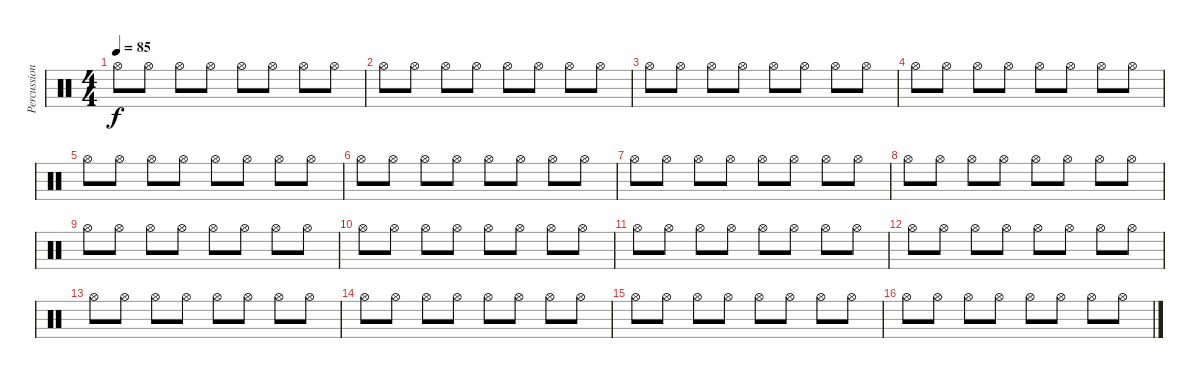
\track ("Percussion" "Percussion") {instrument percussion}
\staff {score}
\articulation defaults
\ts (4 4)
\tempo 85
\clef neutral
\ks c "Hi-Hat (open)".8{dy f volume 3 balance 12} "Hi-Hat (open)".8 "Hi-Hat (open)".8 "Hi-Hat (open)".8 "Hi-Hat (open)".8 "Hi-Hat (open)".8 "Hi-Hat (open)".8 "Hi-Hat (open)".8
|
"Hi-Hat (open)".8 "Hi-Hat (open)".8 "Hi-Hat (open)".8 "Hi-Hat (open)".8 "Hi-Hat (open)".8 "Hi-Hat (open)".8 "Hi-Hat (open)".8 "Hi-Hat (open)".8 |
"Hi-Hat (open)".8 "Hi-Hat (open)".8 "Hi-Hat (open)".8 "Hi-Hat (open)".8 "Hi-Hat (open)".8 "Hi-Hat (open)".8 "Hi-Hat (open)".8 "Hi-Hat (open)".8 |
"Hi-Hat (open)".8 "Hi-Hat (open)".8 "Hi-Hat (open)".8 "Hi-Hat (open)".8 "Hi-Hat (open)".8 "Hi-Hat (open)".8 "Hi-Hat (open)".8 "Hi-Hat (open)".8 |
"Hi-Hat (open)".8 "Hi-Hat (open)".8 "Hi-Hat (open)".8 "Hi-Hat (open)".8 "Hi-Hat (open)".8 "Hi-Hat (open)".8 "Hi-Hat (open)".8 "Hi-Hat (open)".8 |
"Hi-Hat (open)".8 "Hi-Hat (open)".8 "Hi-Hat (open)".8 "Hi-Hat (open)".8 "Hi-Hat (open)".8 "Hi-Hat (open)".8 "Hi-Hat (open)".8 "Hi-Hat (open)".8 |
"Hi-Hat (open)".8 "Hi-Hat (open)".8 "Hi-Hat (open)".8 "Hi-Hat (open)".8 "Hi-Hat (open)".8 "Hi-Hat (open)".8 "Hi-Hat (open)".8 "Hi-Hat (open)".8 |
"Hi-Hat (open)".8 "Hi-Hat (open)".8 "Hi-Hat (open)".8 "Hi-Hat (open)".8 "Hi-Hat (open)".8 "Hi-Hat (open)".8 "Hi-Hat (open)".8 "Hi-Hat (open)".8 |
"Hi-Hat (open)".8 "Hi-Hat (open)".8 "Hi-Hat (open)".8 "Hi-Hat (open)".8 "Hi-Hat (open)".8 "Hi-Hat (open)".8 "Hi-Hat (open)".8 "Hi-Hat (open)".8 |
"Hi-Hat (open)".8 "Hi-Hat (open)".8 "Hi-Hat (open)".8 "Hi-Hat (open)".8 "Hi-Hat (open)".8 "Hi-Hat (open)".8 "Hi-Hat (open)".8 "Hi-Hat (open)".8 |
"Hi-Hat (open)".8 "Hi-Hat (open)".8 "Hi-Hat (open)".8 "Hi-Hat (open)".8 "Hi-Hat (open)".8 "Hi-Hat (open)".8 "Hi-Hat (open)".8 "Hi-Hat (open)".8 |
"Hi-Hat (open)".8 "Hi-Hat (open)".8 "Hi-Hat (open)".8 "Hi-Hat (open)".8 "Hi-Hat (open)".8 "Hi-Hat (open)".8 "Hi-Hat (open)".8 "Hi-Hat (open)".8 |
"Hi-Hat (open)".8 "Hi-Hat (open)".8 "Hi-Hat (open)".8 "Hi-Hat (open)".8 "Hi-Hat (open)".8 "Hi-Hat (open)".8 "Hi-Hat (open)".8 "Hi-Hat (open)".8 |
"Hi-Hat (open)".8 "Hi-Hat (open)".8 "Hi-Hat (open)".8 "Hi-Hat (open)".8 "Hi-Hat (open)".8 "Hi-Hat (open)".8 "Hi-Hat (open)".8 "Hi-Hat (open)".8 |
"Hi-Hat (open)".8 "Hi-Hat (open)".8 "Hi-Hat (open)".8 "Hi-Hat (open)".8 "Hi-Hat (open)".8 "Hi-Hat (open)".8 "Hi-Hat (open)".8 "Hi-Hat (open)".8 |
"Hi-Hat (open)".8 "Hi-Hat (open)".8 "Hi-Hat (open)".8 "Hi-Hat (open)".8 "Hi-Hat (open)".8 "Hi-Hat (open)".8 "Hi-Hat (open)".8 "Hi-Hat (open)".8
